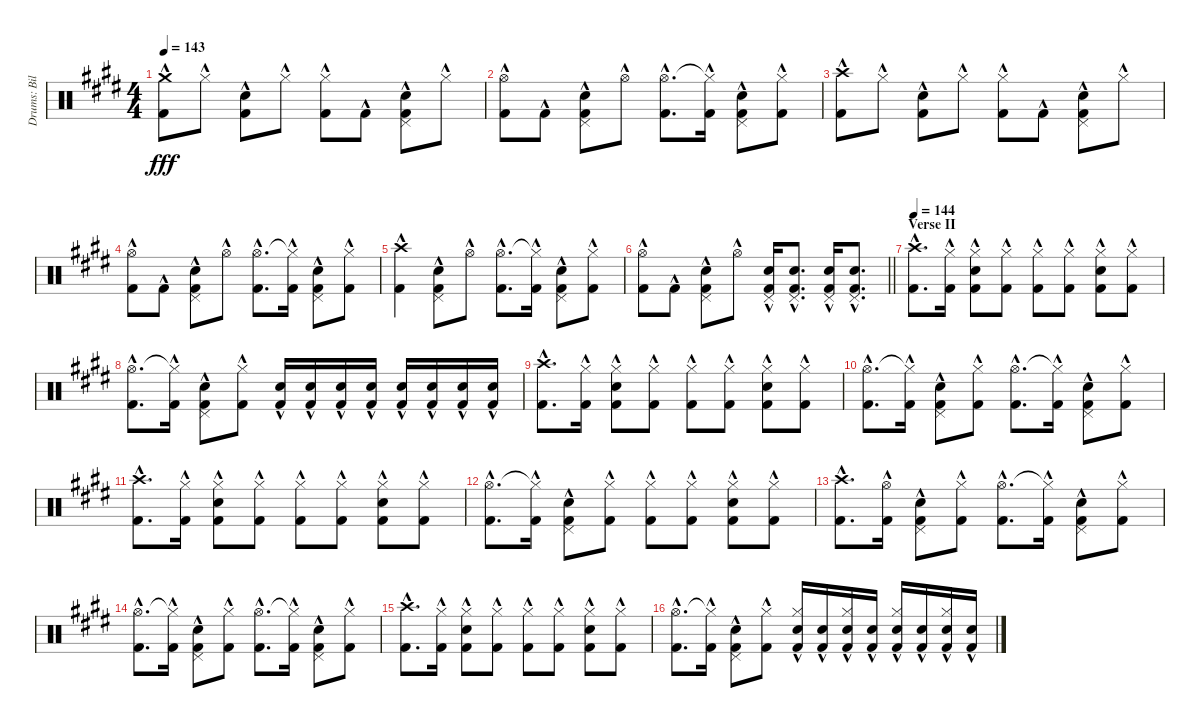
\track ("Drums: Bill" "Drums: Bil") {instrument percussion}
\staff {score}
\articulation defaults
\ts (4 4)
\tempo 143
\clef neutral
\ks e
("Crash medium (hit)"{hac} "Kick (hit) 2"{hac}).8{dy fff} "Hi-Hat (closed)"{hac}.8 ("Snare (hit) 2"{hac} "Kick (hit) 2"{hac}).8 "Hi-Hat (closed)"{hac}.8 ("Hi-Hat (closed)"{hac} "Kick (hit) 2"{hac}).8 "Kick (hit) 2"{hac}.8 ("Pedal Hi-Hat (hit)"{hac} "Snare (hit) 2"{hac} "Kick (hit) 2"{hac}).8 "Hi-Hat (closed)"{hac}.8 |
("Hi-Hat (open)"{hac} "Kick (hit) 2"{hac}).8 "Kick (hit) 2"{hac}.8 ("Pedal Hi-Hat (hit)"{hac} "Snare (hit) 2"{hac} "Kick (hit) 2"{hac}).8 "Hi-Hat (open)"{hac}.8 ("Hi-Hat (open)"{hac} "Kick (hit) 2"{hac}).8{d} ("Hi-Hat (closed)"{t} "Kick (hit) 2"{hac}).16 ("Pedal Hi-Hat (hit)"{hac} "Snare (hit) 2"{hac} "Kick (hit) 2"{hac}).8 ("Hi-Hat (closed)"{hac} "Kick (hit) 2"{hac}).8 |
("Crash high (hit)"{hac} "Kick (hit) 2"{hac}).8 "Hi-Hat (closed)"{hac}.8 ("Snare (hit) 2"{hac} "Kick (hit) 2"{hac}).8 "Hi-Hat (closed)"{hac}.8 ("Hi-Hat (closed)"{hac} "Kick (hit) 2"{hac}).8 "Kick (hit) 2"{hac}.8 ("Pedal Hi-Hat (hit)"{hac} "Snare (hit) 2"{hac} "Kick (hit) 2"{hac}).8 "Hi-Hat (closed)"{hac}.8 |
("Hi-Hat (open)"{hac} "Kick (hit) 2"{hac}).8 "Kick (hit) 2"{hac}.8 ("Pedal Hi-Hat (hit)"{hac} "Snare (hit) 2"{hac} "Kick (hit) 2"{hac}).8 "Hi-Hat (open)"{hac}.8 ("Hi-Hat (open)"{hac} "Kick (hit) 2"{hac}).8{d} ("Hi-Hat (closed)"{t} "Kick (hit) 2"{hac}).16 ("Pedal Hi-Hat (hit)"{hac} "Snare (hit) 2"{hac} "Kick (hit) 2"{hac}).8 ("Hi-Hat (closed)"{hac} "Kick (hit) 2"{hac}).8 |
("Crash high (hit)"{hac} "Kick (hit) 2"{hac}).4 ("Pedal Hi-Hat (hit)"{hac} "Snare (hit) 2"{hac} "Kick (hit) 2"{hac}).8 "Hi-Hat (open)"{hac}.8 ("Hi-Hat (open)"{hac} "Kick (hit) 2"{hac}).8{d} ("Hi-Hat (closed)"{t} "Kick (hit) 2"{hac}).16 ("Pedal Hi-Hat (hit)"{hac} "Snare (hit) 2"{hac} "Kick (hit) 2"{hac}).8 ("Hi-Hat (closed)"{hac} "Kick (hit) 2"{hac}).8 |
\barLineRight lightlight
("Hi-Hat (open)"{hac} "Kick (hit) 2"{hac}).8 "Kick (hit) 2"{hac}.8 ("Pedal Hi-Hat (hit)"{hac} "Snare (hit) 2"{hac} "Kick (hit) 2"{hac}).8 "Hi-Hat (open)"{hac}.8 ("Pedal Hi-Hat (hit)"{hac} "Snare (hit) 2"{hac} "Kick (hit) 2"{hac}).16 ("Pedal Hi-Hat (hit)"{hac} "Snare (hit) 2"{hac} "Kick (hit) 2"{hac}).8{d} ("Pedal Hi-Hat (hit)"{hac} "Snare (hit) 2"{hac} "Kick (hit) 2"{hac}).16 ("Pedal Hi-Hat (hit)"{hac} "Snare (hit) 2"{hac} "Kick (hit) 2"{hac}).8{d} |
\section ("" "Verse II")
\tempo 145
\tempo 144
("Crash high (hit)"{hac} "Kick (hit) 2"{hac}).8{d} ("Hi-Hat (closed)"{hac} "Kick (hit) 2"{hac}).16 ("Hi-Hat (closed)"{hac} "Snare (hit) 2"{hac} "Kick (hit) 2"{hac}).8 ("Hi-Hat (closed)"{hac} "Kick (hit) 2"{hac}).8 ("Hi-Hat (closed)"{hac} "Kick (hit) 2"{hac}).8 ("Hi-Hat (closed)"{hac} "Kick (hit) 2"{hac}).8 ("Hi-Hat (closed)"{hac} "Snare (hit) 2"{hac} "Kick (hit) 2"{hac}).8 ("Hi-Hat (closed)"{hac} "Kick (hit) 2"{hac}).8 |
("Hi-Hat (open)"{hac} "Kick (hit) 2"{hac}).8{d} ("Hi-Hat (closed)"{t} "Kick (hit) 2"{hac}).16 ("Pedal Hi-Hat (hit)"{hac} "Snare (hit) 2"{hac} "Kick (hit) 2"{hac}).8 ("Hi-Hat (closed)"{hac} "Kick (hit) 2"{hac}).8 ("Snare (hit) 2"{hac} "Kick (hit) 2"{hac}).16 ("Snare (hit) 2"{hac} "Kick (hit) 2"{hac}).16 ("Snare (hit) 2"{hac} "Kick (hit) 2"{hac}).16 ("Snare (hit) 2"{hac} "Kick (hit) 2"{hac}).16 ("Snare (hit) 2"{hac} "Kick (hit) 2"{hac}).16 ("Snare (hit) 2"{hac} "Kick (hit) 2"{hac}).16 ("Snare (hit) 2"{hac} "Kick (hit) 2"{hac}).16 ("Snare (hit) 2"{hac} "Kick (hit) 2"{hac}).16 |
("Crash high (hit)"{hac} "Kick (hit) 2"{hac}).8{d} ("Hi-Hat (closed)"{hac} "Kick (hit) 2"{hac}).16 ("Hi-Hat (closed)"{hac} "Snare (hit) 2"{hac} "Kick (hit) 2"{hac}).8 ("Hi-Hat (closed)"{hac} "Kick (hit) 2"{hac}).8 ("Hi-Hat (closed)"{hac} "Kick (hit) 2"{hac}).8 ("Hi-Hat (closed)"{hac} "Kick (hit) 2"{hac}).8 ("Hi-Hat (closed)"{hac} "Snare (hit) 2"{hac} "Kick (hit) 2"{hac}).8 ("Hi-Hat (closed)"{hac} "Kick (hit) 2"{hac}).8 |
("Hi-Hat (open)"{hac} "Kick (hit) 2"{hac}).8{d} ("Hi-Hat (closed)"{t} "Kick (hit) 2"{hac}).16 ("Pedal Hi-Hat (hit)"{hac} "Snare (hit) 2"{hac} "Kick (hit) 2"{hac}).8 ("Hi-Hat (closed)"{hac} "Kick (hit) 2"{hac}).8 ("Hi-Hat (open)"{hac} "Kick (hit) 2"{hac}).8{d} ("Hi-Hat (closed)"{t} "Kick (hit) 2"{hac}).16 ("Pedal Hi-Hat (hit)"{hac} "Snare (hit) 2"{hac} "Kick (hit) 2"{hac}).8 ("Hi-Hat (closed)"{hac} "Kick (hit) 2"{hac}).8 |
("Crash high (hit)"{hac} "Kick (hit) 2"{hac}).8{d} ("Hi-Hat (closed)"{hac} "Kick (hit) 2"{hac}).16 ("Hi-Hat (closed)"{hac} "Snare (hit) 2"{hac} "Kick (hit) 2"{hac}).8 ("Hi-Hat (closed)"{hac} "Kick (hit) 2"{hac}).8 ("Hi-Hat (closed)"{hac} "Kick (hit) 2"{hac}).8 ("Hi-Hat (closed)"{hac} "Kick (hit) 2"{hac}).8 ("Hi-Hat (closed)"{hac} "Snare (hit) 2"{hac} "Kick (hit) 2"{hac}).8 ("Hi-Hat (closed)"{hac} "Kick (hit) 2"{hac}).8 |
("Hi-Hat (open)"{hac} "Kick (hit) 2"{hac}).8{d} ("Hi-Hat (closed)"{t} "Kick (hit) 2"{hac}).16 ("Pedal Hi-Hat (hit)"{hac} "Snare (hit) 2"{hac} "Kick (hit) 2"{hac}).8 ("Hi-Hat (closed)"{hac} "Kick (hit) 2"{hac}).8 ("Hi-Hat (closed)"{hac} "Kick (hit) 2"{hac}).8 ("Hi-Hat (closed)"{hac} "Kick (hit) 2"{hac}).8 ("Hi-Hat (closed)"{hac} "Snare (hit) 2"{hac} "Kick (hit) 2"{hac}).8 ("Hi-Hat (closed)"{hac} "Kick (hit) 2"{hac}).8 |
("Crash high (hit)"{hac} "Kick (hit) 2"{hac}).8{d} ("Hi-Hat (open)"{hac} "Kick (hit) 2"{hac}).16 ("Pedal Hi-Hat (hit)"{hac} "Snare (hit) 2"{hac} "Kick (hit) 2"{hac}).8 ("Hi-Hat (closed)"{hac} "Kick (hit) 2"{hac}).8 ("Hi-Hat (open)"{hac} "Kick (hit) 2"{hac}).8{d} ("Hi-Hat (closed)"{t} "Kick (hit) 2"{hac}).16 ("Pedal Hi-Hat (hit)"{hac} "Snare (hit) 2"{hac} "Kick (hit) 2"{hac}).8 ("Hi-Hat (closed)"{hac} "Kick (hit) 2"{hac}).8 |
("Hi-Hat (open)"{hac} "Kick (hit) 2"{hac}).8{d} ("Hi-Hat (closed)"{t} "Kick (hit) 2"{hac}).16 ("Pedal Hi-Hat (hit)"{hac} "Snare (hit) 2"{hac} "Kick (hit) 2"{hac}).8 ("Hi-Hat (closed)"{hac} "Kick (hit) 2"{hac}).8 ("Hi-Hat (open)"{hac} "Kick (hit) 2"{hac}).8{d} ("Hi-Hat (closed)"{t} "Kick (hit) 2"{hac}).16 ("Pedal Hi-Hat (hit)"{hac} "Snare (hit) 2"{hac} "Kick (hit) 2"{hac}).8 ("Hi-Hat (closed)"{hac} "Kick (hit) 2"{hac}).8 |
("Crash high (hit)"{hac} "Kick (hit) 2"{hac}).8{d} ("Hi-Hat (closed)"{hac} "Kick (hit) 2"{hac}).16 ("Hi-Hat (closed)"{hac} "Snare (hit) 2"{hac} "Kick (hit) 2"{hac}).8 ("Hi-Hat (closed)"{hac} "Kick (hit) 2"{hac}).8 ("Hi-Hat (closed)"{hac} "Kick (hit) 2"{hac}).8 ("Hi-Hat (closed)"{hac} "Kick (hit) 2"{hac}).8 ("Hi-Hat (closed)"{hac} "Snare (hit) 2"{hac} "Kick (hit) 2"{hac}).8 ("Hi-Hat (closed)"{hac} "Kick (hit) 2"{hac}).8 |
("Hi-Hat (open)"{hac} "Kick (hit) 2"{hac}).8{d} ("Hi-Hat (closed)"{t} "Kick (hit) 2"{hac}).16 ("Pedal Hi-Hat (hit)"{hac} "Snare (hit) 2"{hac} "Kick (hit) 2"{hac}).8 ("Hi-Hat (closed)"{hac} "Kick (hit) 2"{hac}).8 ("Hi-Hat (closed)"{hac} "Snare (hit) 2"{hac} "Kick (hit) 2"{hac}).16 ("Snare (hit) 2"{hac} "Kick (hit) 2"{hac}).16 ("Hi-Hat (closed)"{hac} "Snare (hit) 2"{hac} "Kick (hit) 2"{hac}).16 ("Snare (hit) 2"{hac} "Kick (hit) 2"{hac}).16 ("Hi-Hat (closed)"{hac} "Snare (hit) 2"{hac} "Kick (hit) 2"{hac}).16 ("Snare (hit) 2"{hac} "Kick (hit) 2"{hac}).16 ("Hi-Hat (closed)"{hac} "Snare (hit) 2"{hac} "Kick (hit) 2"{hac}).16 ("Snare (hit) 2"{hac} "Kick (hit) 2"{hac}).16
